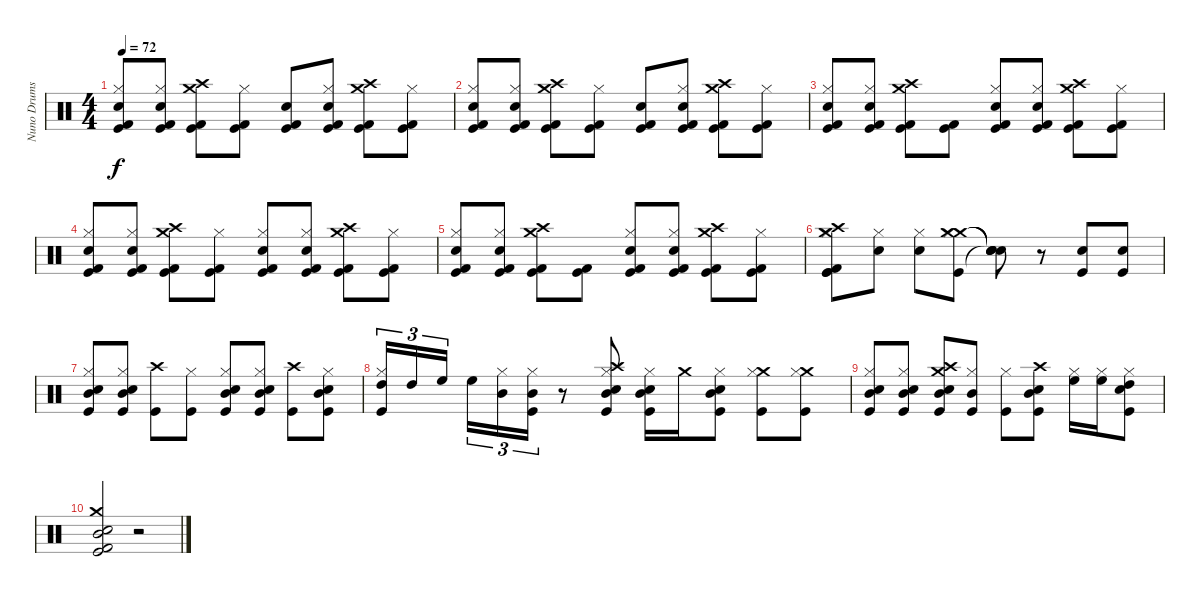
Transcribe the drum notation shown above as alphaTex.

\track ("Nuno Drums" "Nuno Drums") {instrument percussion}
\staff {score}
\articulation defaults
\ts (4 4)
\tempo 72
\clef neutral
\ks c
("Kick (hit)" "Kick (hit) 2" "Hi-Hat (closed)" "Electric Snare (hit)").8{dy f} ("Kick (hit)" "Kick (hit) 2" "Hi-Hat (closed)" "Electric Snare (hit)").8 ("Kick (hit)" "Kick (hit) 2" "Crash medium (hit)" "Crash high (hit)").8 ("Kick (hit)" "Kick (hit) 2" "Hi-Hat (closed)").8 ("Kick (hit)" "Kick (hit) 2" "Electric Snare (hit)").8 ("Kick (hit)" "Kick (hit) 2" "Hi-Hat (closed)" "Electric Snare (hit)").8 ("Kick (hit)" "Kick (hit) 2" "Crash medium (hit)" "Crash high (hit)").8 ("Kick (hit)" "Kick (hit) 2" "Hi-Hat (closed)").8 |
("Kick (hit)" "Kick (hit) 2" "Hi-Hat (closed)" "Electric Snare (hit)").8 ("Kick (hit)" "Kick (hit) 2" "Hi-Hat (closed)" "Electric Snare (hit)").8 ("Kick (hit)" "Kick (hit) 2" "Crash medium (hit)" "Crash high (hit)").8 ("Kick (hit)" "Kick (hit) 2" "Hi-Hat (closed)").8 ("Kick (hit)" "Kick (hit) 2" "Electric Snare (hit)").8 ("Kick (hit)" "Kick (hit) 2" "Hi-Hat (closed)" "Electric Snare (hit)").8 ("Kick (hit)" "Kick (hit) 2" "Crash medium (hit)" "Crash high (hit)").8 ("Kick (hit)" "Kick (hit) 2" "Hi-Hat (closed)").8 |
("Kick (hit)" "Kick (hit) 2" "Hi-Hat (closed)" "Electric Snare (hit)").8 ("Kick (hit)" "Kick (hit) 2" "Hi-Hat (closed)" "Electric Snare (hit)").8 ("Kick (hit)" "Kick (hit) 2" "Crash medium (hit)" "Crash high (hit)").8 ("Kick (hit)" "Kick (hit) 2").8 ("Kick (hit)" "Kick (hit) 2" "Hi-Hat (closed)" "Electric Snare (hit)").8 ("Kick (hit)" "Kick (hit) 2" "Hi-Hat (closed)" "Electric Snare (hit)").8 ("Kick (hit)" "Kick (hit) 2" "Crash medium (hit)" "Crash high (hit)").8 ("Kick (hit)" "Kick (hit) 2" "Hi-Hat (closed)").8 |
("Kick (hit)" "Kick (hit) 2" "Hi-Hat (closed)" "Electric Snare (hit)").8 ("Kick (hit)" "Kick (hit) 2" "Hi-Hat (closed)" "Electric Snare (hit)").8 ("Kick (hit)" "Kick (hit) 2" "Crash medium (hit)" "Crash high (hit)").8 ("Kick (hit)" "Kick (hit) 2" "Hi-Hat (closed)").8 ("Kick (hit)" "Kick (hit) 2" "Hi-Hat (closed)" "Electric Snare (hit)").8 ("Kick (hit)" "Kick (hit) 2" "Hi-Hat (closed)" "Electric Snare (hit)").8 ("Kick (hit)" "Kick (hit) 2" "Crash medium (hit)" "Crash high (hit)").8 ("Kick (hit)" "Kick (hit) 2" "Hi-Hat (closed)").8 |
("Kick (hit)" "Kick (hit) 2" "Hi-Hat (closed)" "Electric Snare (hit)").8 ("Kick (hit)" "Kick (hit) 2" "Hi-Hat (closed)" "Electric Snare (hit)").8 ("Kick (hit)" "Kick (hit) 2" "Crash medium (hit)" "Crash high (hit)").8 ("Kick (hit)" "Kick (hit) 2").8 ("Kick (hit)" "Kick (hit) 2" "Hi-Hat (closed)" "Electric Snare (hit)").8 ("Kick (hit)" "Kick (hit) 2" "Hi-Hat (closed)" "Electric Snare (hit)").8 ("Kick (hit)" "Kick (hit) 2" "Crash medium (hit)" "Crash high (hit)").8 ("Kick (hit)" "Kick (hit) 2" "Hi-Hat (closed)").8 |
("Kick (hit)" "Kick (hit) 2" "Kick (hit)" "Crash medium (hit)" "Crash high (hit)" "Hi-Hat (closed)").8 ("Electric Snare (hit)" "Hi-Hat (closed)").8 ("Electric Snare (hit)" "Hi-Hat (closed)").8 ("Kick (hit)" "Crash medium (hit)" "Crash medium (hit)" "Hi-Hat (closed)").8 ("Snare (hit)"{t} "Snare (hit)"{t} "Snare (hit)"{t} "Snare (hit)"{t}).8 r.8 ("Kick (hit)" "Electric Snare (hit)").8 ("Kick (hit)" "Electric Snare (hit)").8 |
("Kick (hit)" "Hi-Hat (closed)" "Electric Snare (hit)" "Mid Tom (hit)").8 ("Kick (hit)" "Hi-Hat (closed)" "Electric Snare (hit)" "Mid Tom (hit)").8 ("Kick (hit)" "Crash high (hit)").8 ("Kick (hit)" "Hi-Hat (closed)").8 ("Kick (hit)" "Hi-Hat (closed)" "Electric Snare (hit)" "Mid Tom (hit)").8 ("Kick (hit)" "Hi-Hat (closed)" "Electric Snare (hit)" "Mid Tom (hit)").8 ("Kick (hit)" "Crash high (hit)").8 ("Kick (hit)" "Hi-Hat (closed)" "Electric Snare (hit)" "Mid Tom (hit)").8 |
("High Tom (hit)" "Hi-Hat (closed)" "Kick (hit)").16{tu (3 2)} "High Tom (hit)".16{tu (3 2)} "High Floor Tom (hit)".16{tu (3 2)} "High Floor Tom (hit)".16{tu (3 2)} ("Mid Tom (hit)" "Hi-Hat (closed)").16{tu (3 2)} ("Mid Tom (hit)" "Hi-Hat (closed)" "Kick (hit)").16{tu (3 2)} r.8 ("Kick (hit)" "Crash high (hit)" "Hi-Hat (closed)" "Electric Snare (hit)" "Mid Tom (hit)").8 ("Kick (hit)" "Hi-Hat (closed)" "Electric Snare (hit)" "Mid Tom (hit)").16 "Crash medium (hit)".16 ("Kick (hit)" "Hi-Hat (closed)" "Electric Snare (hit)" "Mid Tom (hit)").8 ("Kick (hit)" "Crash medium (hit)" "Hi-Hat (closed)").8 ("Kick (hit)" "Crash medium (hit)" "Hi-Hat (closed)").8 |
("Kick (hit)" "Hi-Hat (closed)" "Electric Snare (hit)" "Mid Tom (hit)").8 ("Kick (hit)" "Hi-Hat (closed)" "Electric Snare (hit)" "Mid Tom (hit)").8 ("Kick (hit)" "Crash high (hit)" "Crash medium (hit)" "Electric Snare (hit)" "Mid Tom (hit)").8 ("Kick (hit)" "Hi-Hat (closed)" "Mid Tom (hit)").8 ("Kick (hit)" "Hi-Hat (closed)").8 ("Kick (hit)" "Crash high (hit)" "Electric Snare (hit)" "Mid Tom (hit)").8 ("High Floor Tom (hit)" "Hi-Hat (closed)").16 ("High Floor Tom (hit)" "Hi-Hat (closed)").16 ("Hi-Hat (closed)" "High Tom (hit)" "Electric Snare (hit)" "Kick (hit)").8 |
("Kick (hit)" "Kick (hit) 2" "Crash medium (hit)" "Mid Tom (hit)" "Electric Snare (hit)").2 r.2
